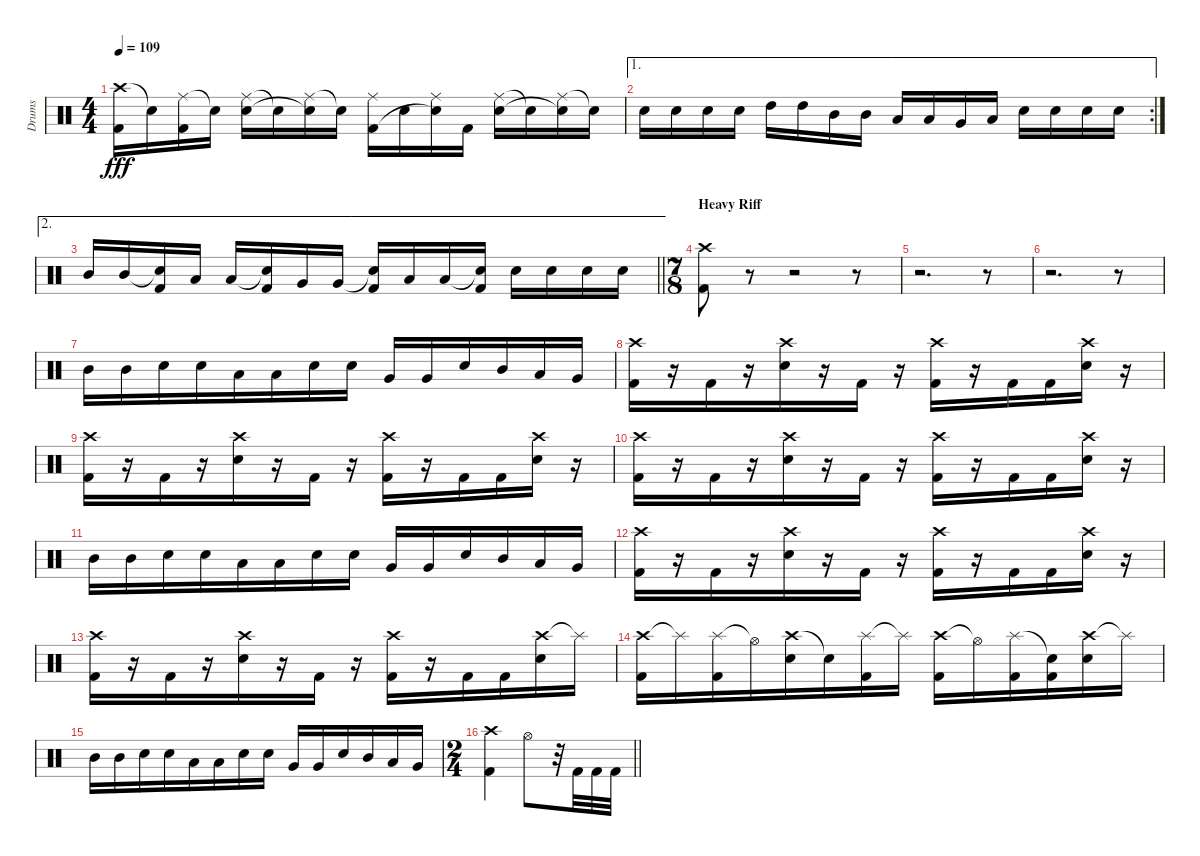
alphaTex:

\track ("Drums" "Drums") {instrument percussion}
\staff {score}
\articulation defaults
\ts (4 4)
\tempo 109
\clef neutral
\ks c
("Crash high (hit)" "Kick (hit) 2").16{dy fff} "Snare (hit)"{t}.16 ("Ride (middle)" "Kick (hit) 2").16 "Snare (hit)"{t}.16 ("Ride (middle)" "Electric Snare (hit)").16 "Snare (hit)"{t}.16 ("Ride (middle)" "Snare (hit)"{t}).16 "Snare (hit)"{t}.16 ("Ride (middle)" "Kick (hit) 2").16 "Electric Snare (hit)".16 ("Ride (middle)" "Snare (hit)"{t}).16 "Kick (hit) 2".16 ("Ride (middle)" "Electric Snare (hit)").16 "Snare (hit)"{t}.16 ("Ride (middle)" "Snare (hit)"{t}).16 "Snare (hit)"{t}.16 |
\ae 1
\rc 2 "Electric Snare (hit)".16 "Electric Snare (hit)".16 "Electric Snare (hit)".16 "Electric Snare (hit)".16 "High Tom (hit)".16 "High Tom (hit)".16 "Mid Tom (hit)".16 "Mid Tom (hit)".16 "Low Tom (hit)".16 "Low Tom (hit)".16 "Very Low Tom (hit)".16 "Low Tom (hit)".16 "Electric Snare (hit)".16 "Electric Snare (hit)".16 "Electric Snare (hit)".16 "Electric Snare (hit)".16
|
\ae 2
\barLineRight lightlight "Mid Tom (hit)".16 "Mid Tom (hit)".16
("Snare (hit)"{t} "Kick (hit) 2").16 "Low Tom (hit)".16 "Low Tom (hit)".16 ("Snare (hit)"{t} "Kick (hit) 2").16 "Very Low Tom (hit)".16 "Very Low Tom (hit)".16 ("Snare (hit)"{t} "Kick (hit) 2").16 "Low Floor Tom (hit)".16 "Low Floor Tom (hit)".16 ("Snare (hit)"{t} "Kick (hit) 2").16 "Electric Snare (hit)".16 "Electric Snare (hit)".16 "Electric Snare (hit)".16 "Electric Snare (hit)".16 |
\ts (7 8)
\section ("" "Heavy Riff")
("Crash high (hit)" "Kick (hit) 2").8 r.8{volume 0} r.2 r.8 |
r.2{d} r.8 |
r.2{d} r.8 |
"Mid Tom (hit)".16{volume 16} "Mid Tom (hit)".16 "Electric Snare (hit)".16 "Electric Snare (hit)".16 "Low Tom (hit)".16 "Low Tom (hit)".16 "Electric Snare (hit)".16 "Electric Snare (hit)".16 "Very Low Tom (hit)".16 "Very Low Tom (hit)".16 "Electric Snare (hit)".16 "Mid Tom (hit)".16 "Low Tom (hit)".16 "Very Low Tom (hit)".16 |
("Crash high (hit)" "Kick (hit) 2").16 r.16 "Kick (hit) 2".16 r.16 ("Crash high (hit)" "Electric Snare (hit)").16 r.16 "Kick (hit) 2".16 r.16 ("Crash high (hit)" "Kick (hit) 2").16 r.16 "Kick (hit) 2".16 "Kick (hit) 2".16 ("Crash high (hit)" "Electric Snare (hit)").16 r.16 |
("Crash high (hit)" "Kick (hit) 2").16 r.16 "Kick (hit) 2".16 r.16 ("Crash high (hit)" "Electric Snare (hit)").16 r.16 "Kick (hit) 2".16 r.16 ("Crash high (hit)" "Kick (hit) 2").16 r.16 "Kick (hit) 2".16 "Kick (hit) 2".16 ("Crash high (hit)" "Electric Snare (hit)").16 r.16 |
("Crash high (hit)" "Kick (hit) 2").16 r.16 "Kick (hit) 2".16 r.16 ("Crash high (hit)" "Electric Snare (hit)").16 r.16 "Kick (hit) 2".16 r.16 ("Crash high (hit)" "Kick (hit) 2").16 r.16 "Kick (hit) 2".16 "Kick (hit) 2".16 ("Crash high (hit)" "Electric Snare (hit)").16 r.16 |
"Mid Tom (hit)".16 "Mid Tom (hit)".16 "Electric Snare (hit)".16 "Electric Snare (hit)".16 "Low Tom (hit)".16 "Low Tom (hit)".16 "Electric Snare (hit)".16 "Electric Snare (hit)".16 "Very Low Tom (hit)".16 "Very Low Tom (hit)".16 "Electric Snare (hit)".16 "Mid Tom (hit)".16 "Low Tom (hit)".16 "Very Low Tom (hit)".16 |
("Crash high (hit)" "Kick (hit) 2").16 r.16 "Kick (hit) 2".16 r.16 ("Crash high (hit)" "Electric Snare (hit)").16 r.16 "Kick (hit) 2".16 r.16 ("Crash high (hit)" "Kick (hit) 2").16 r.16 "Kick (hit) 2".16 "Kick (hit) 2".16 ("Crash high (hit)" "Electric Snare (hit)").16 r.16 |
("Crash high (hit)" "Kick (hit) 2").16 r.16 "Kick (hit) 2".16 r.16 ("Crash high (hit)" "Electric Snare (hit)").16 r.16 "Kick (hit) 2".16 r.16 ("Crash high (hit)" "Kick (hit) 2").16 r.16 "Kick (hit) 2".16 "Kick (hit) 2".16 ("Crash high (hit)" "Electric Snare (hit)").16 "Splash (hit)"{t}.16 |
("Crash high (hit)" "Kick (hit) 2").16 "Splash (hit)"{t}.16 ("Splash (hit)" "Kick (hit) 2").16 "Hi-Hat (open)"{t}.16 ("Crash high (hit)" "Electric Snare (hit)").16 "Snare (hit)"{t}.16 ("Splash (hit)" "Kick (hit) 2").16 "Splash (hit)"{t}.16 ("Crash high (hit)" "Kick (hit) 2").16 "Hi-Hat (open)"{t}.16 ("Splash (hit)" "Kick (hit) 2").16 ("Snare (hit)"{t} "Kick (hit) 2").16 ("Crash high (hit)" "Electric Snare (hit)").16 "Splash (hit)"{t}.16 |
"Mid Tom (hit)".16 "Mid Tom (hit)".16 "Electric Snare (hit)".16 "Electric Snare (hit)".16 "Low Tom (hit)".16 "Low Tom (hit)".16 "Electric Snare (hit)".16 "Electric Snare (hit)".16 "Very Low Tom (hit)".16 "Very Low Tom (hit)".16 "Electric Snare (hit)".16 "Mid Tom (hit)".16 "Low Tom (hit)".16 "Very Low Tom (hit)".16 |
\ts (2 4)
\barLineRight lightlight
("Crash high (hit)" "Kick (hit) 2").4 "Hi-Hat (open)".8 r.32 "Kick (hit) 2".32 "Kick (hit) 2".32 "Kick (hit) 2".32
